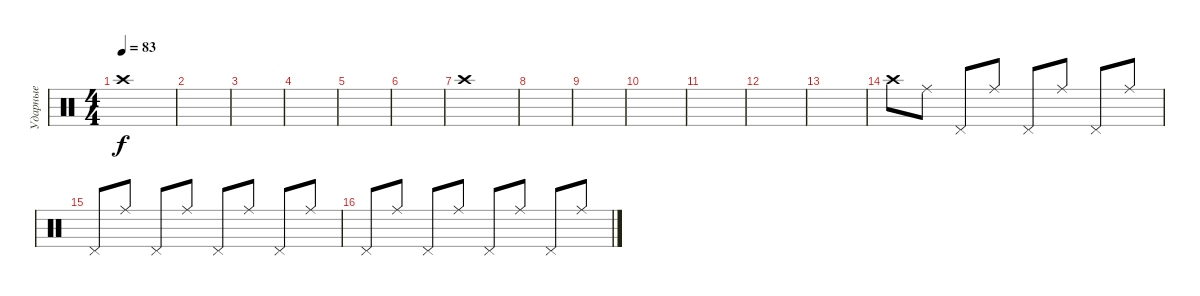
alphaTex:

\track ("Ударные" "Ударные") {instrument percussion}
\staff {score}
\articulation defaults
\ts (4 4)
\tempo 83
\clef neutral
\ks c "Crash high (hit)".1{dy f}
|
|
|
|
|
|
"Crash high (hit)".1 |
|
|
|
|
|
|
"Crash high (hit)".8 "Ride (middle)".8 "Pedal Hi-Hat (hit)".8 "Ride (middle)".8 "Pedal Hi-Hat (hit)".8 "Ride (middle)".8 "Pedal Hi-Hat (hit)".8 "Ride (middle)".8 |
"Pedal Hi-Hat (hit)".8 "Ride (middle)".8 "Pedal Hi-Hat (hit)".8 "Ride (middle)".8 "Pedal Hi-Hat (hit)".8 "Ride (middle)".8 "Pedal Hi-Hat (hit)".8 "Ride (middle)".8 |
"Pedal Hi-Hat (hit)".8 "Ride (middle)".8 "Pedal Hi-Hat (hit)".8 "Ride (middle)".8 "Pedal Hi-Hat (hit)".8 "Ride (middle)".8 "Pedal Hi-Hat (hit)".8 "Ride (middle)".8
